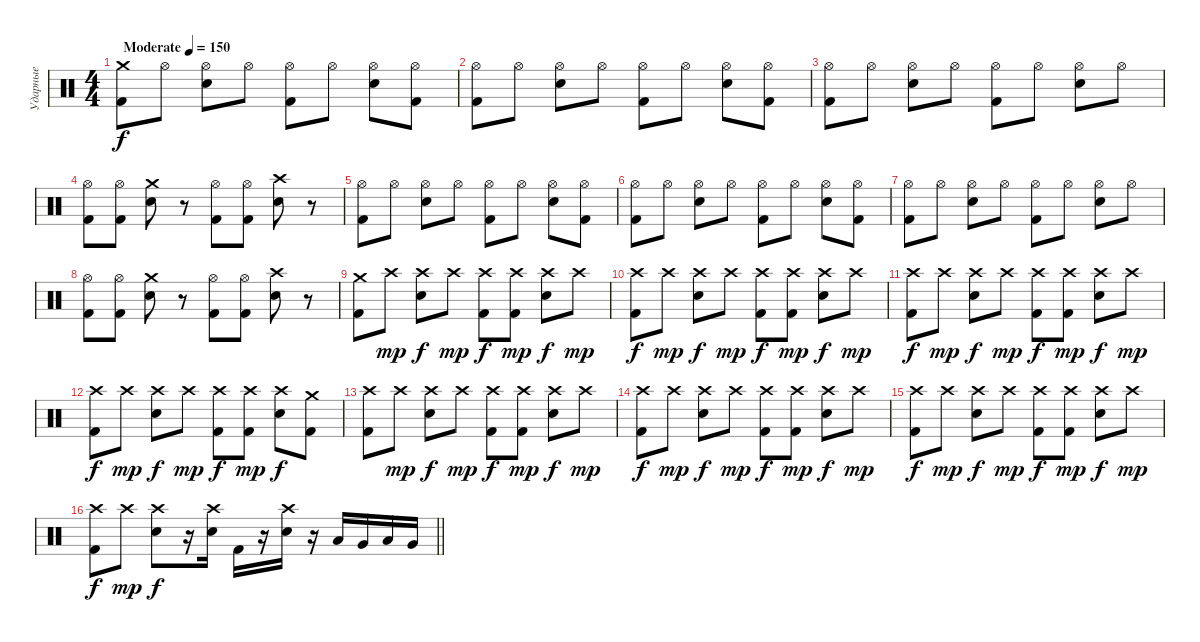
\track ("Ударные" "Ударные") {instrument percussion}
\staff {score}
\articulation defaults
\ts (4 4)
\tempo (150 "Moderate")
\clef neutral
\ks c
("Crash medium (hit)" "Kick (hit) 2").8{dy f} "Hi-Hat (open)".8 ("Hi-Hat (open)" "Electric Snare (hit)").8 "Hi-Hat (open)".8 ("Hi-Hat (open)" "Kick (hit) 2").8 "Hi-Hat (open)".8 ("Hi-Hat (open)" "Electric Snare (hit)").8 ("Hi-Hat (open)" "Kick (hit) 2").8 |
("Hi-Hat (open)" "Kick (hit) 2").8 "Hi-Hat (open)".8 ("Hi-Hat (open)" "Electric Snare (hit)").8 "Hi-Hat (open)".8 ("Hi-Hat (open)" "Kick (hit) 2").8 "Hi-Hat (open)".8 ("Hi-Hat (open)" "Electric Snare (hit)").8 ("Hi-Hat (open)" "Kick (hit) 2").8 |
("Hi-Hat (open)" "Kick (hit) 2").8 "Hi-Hat (open)".8 ("Hi-Hat (open)" "Electric Snare (hit)").8 "Hi-Hat (open)".8 ("Hi-Hat (open)" "Kick (hit) 2").8 "Hi-Hat (open)".8 ("Hi-Hat (open)" "Electric Snare (hit)").8 "Hi-Hat (open)".8 |
("Hi-Hat (open)" "Kick (hit) 2").8 ("Hi-Hat (open)" "Kick (hit) 2").8 ("Crash medium (hit)" "Electric Snare (hit)").8 r.8 ("Hi-Hat (open)" "Kick (hit) 2").8 ("Hi-Hat (open)" "Kick (hit) 2").8 ("Crash high (hit)" "Electric Snare (hit)").8 r.8 |
("Hi-Hat (open)" "Kick (hit) 2").8 "Hi-Hat (open)".8 ("Hi-Hat (open)" "Electric Snare (hit)").8 "Hi-Hat (open)".8 ("Hi-Hat (open)" "Kick (hit) 2").8 "Hi-Hat (open)".8 ("Hi-Hat (open)" "Electric Snare (hit)").8 ("Hi-Hat (open)" "Kick (hit) 2").8 |
("Hi-Hat (open)" "Kick (hit) 2").8 "Hi-Hat (open)".8 ("Hi-Hat (open)" "Electric Snare (hit)").8 "Hi-Hat (open)".8 ("Hi-Hat (open)" "Kick (hit) 2").8 "Hi-Hat (open)".8 ("Hi-Hat (open)" "Electric Snare (hit)").8 ("Hi-Hat (open)" "Kick (hit) 2").8 |
("Hi-Hat (open)" "Kick (hit) 2").8 "Hi-Hat (open)".8 ("Hi-Hat (open)" "Electric Snare (hit)").8 "Hi-Hat (open)".8 ("Hi-Hat (open)" "Kick (hit) 2").8 "Hi-Hat (open)".8 ("Hi-Hat (open)" "Electric Snare (hit)").8 "Hi-Hat (open)".8 |
("Hi-Hat (open)" "Kick (hit) 2").8 ("Hi-Hat (open)" "Kick (hit) 2").8 ("Crash medium (hit)" "Electric Snare (hit)").8 r.8 ("Hi-Hat (open)" "Kick (hit) 2").8 ("Hi-Hat (open)" "Kick (hit) 2").8 ("Crash high (hit)" "Electric Snare (hit)").8 r.8 |
("Crash medium (hit)" "Kick (hit) 2").8 "Crash high (hit)".8{dy mp} ("Crash high (hit)" "Electric Snare (hit)").8{dy f} "Crash high (hit)".8{dy mp} ("Crash high (hit)" "Kick (hit) 2").8{dy f} ("Crash high (hit)" "Kick (hit) 2").8{dy mp} ("Crash high (hit)" "Electric Snare (hit)").8{dy f} "Crash high (hit)".8{dy mp} |
("Crash high (hit)" "Kick (hit) 2").8{dy f} "Crash high (hit)".8{dy mp} ("Crash high (hit)" "Electric Snare (hit)").8{dy f} "Crash high (hit)".8{dy mp} ("Crash high (hit)" "Kick (hit) 2").8{dy f} ("Crash high (hit)" "Kick (hit) 2").8{dy mp} ("Crash high (hit)" "Electric Snare (hit)").8{dy f} "Crash high (hit)".8{dy mp} |
("Crash high (hit)" "Kick (hit) 2").8{dy f} "Crash high (hit)".8{dy mp} ("Crash high (hit)" "Electric Snare (hit)").8{dy f} "Crash high (hit)".8{dy mp} ("Crash high (hit)" "Kick (hit) 2").8{dy f} ("Crash high (hit)" "Kick (hit) 2").8{dy mp} ("Crash high (hit)" "Electric Snare (hit)").8{dy f} "Crash high (hit)".8{dy mp} |
("Crash high (hit)" "Kick (hit) 2").8{dy f} "Crash high (hit)".8{dy mp} ("Crash high (hit)" "Electric Snare (hit)").8{dy f} "Crash high (hit)".8{dy mp} ("Crash high (hit)" "Kick (hit) 2").8{dy f} ("Crash high (hit)" "Kick (hit) 2").8{dy mp} ("Crash high (hit)" "Electric Snare (hit)").8{dy f} ("Crash medium (hit)" "Kick (hit) 2").8 |
("Crash high (hit)" "Kick (hit) 2").8 "Crash high (hit)".8{dy mp} ("Crash high (hit)" "Electric Snare (hit)").8{dy f} "Crash high (hit)".8{dy mp} ("Crash high (hit)" "Kick (hit) 2").8{dy f} ("Crash high (hit)" "Kick (hit) 2").8{dy mp} ("Crash high (hit)" "Electric Snare (hit)").8{dy f} "Crash high (hit)".8{dy mp} |
("Crash high (hit)" "Kick (hit) 2").8{dy f} "Crash high (hit)".8{dy mp} ("Crash high (hit)" "Electric Snare (hit)").8{dy f} "Crash high (hit)".8{dy mp} ("Crash high (hit)" "Kick (hit) 2").8{dy f} ("Crash high (hit)" "Kick (hit) 2").8{dy mp} ("Crash high (hit)" "Electric Snare (hit)").8{dy f} "Crash high (hit)".8{dy mp} |
("Crash high (hit)" "Kick (hit) 2").8{dy f} "Crash high (hit)".8{dy mp} ("Crash high (hit)" "Electric Snare (hit)").8{dy f} "Crash high (hit)".8{dy mp} ("Crash high (hit)" "Kick (hit) 2").8{dy f} ("Crash high (hit)" "Kick (hit) 2").8{dy mp} ("Crash high (hit)" "Electric Snare (hit)").8{dy f} "Crash high (hit)".8{dy mp} |
\barLineRight lightlight
("Crash high (hit)" "Kick (hit) 2").8{dy f} "Crash high (hit)".8{dy mp} ("Crash high (hit)" "Electric Snare (hit)").8{dy f} r.16 ("Crash high (hit)" "Electric Snare (hit)").16 "Kick (hit) 2".16 r.16 ("Crash high (hit)" "Electric Snare (hit)").16 r.16 "Low Floor Tom (hit)".16 "Very Low Tom (hit)".16 "Low Floor Tom (hit)".16 "Very Low Tom (hit)".16
